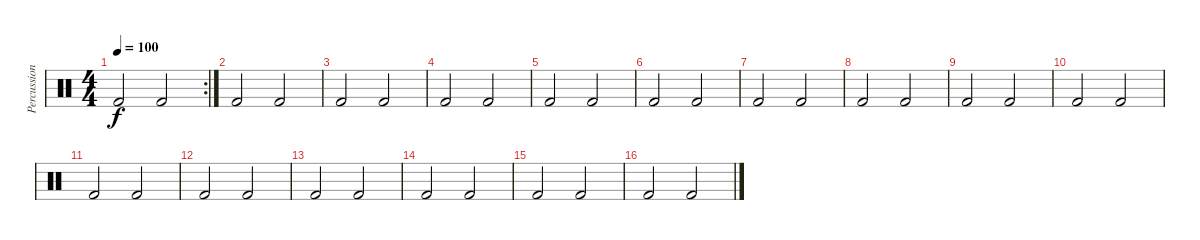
\track ("Percussion" "Percussion") {mute instrument percussion}
\staff {score}
\articulation defaults
\rc 2
\ts (4 4)
\tempo 100
\clef neutral
\ks c "Kick (hit) 2".2{dy f} "Kick (hit) 2".2
|
"Kick (hit) 2".2 "Kick (hit) 2".2 |
"Kick (hit) 2".2 "Kick (hit) 2".2 |
"Kick (hit) 2".2 "Kick (hit) 2".2 |
"Kick (hit) 2".2 "Kick (hit) 2".2 |
"Kick (hit) 2".2 "Kick (hit) 2".2 |
"Kick (hit) 2".2 "Kick (hit) 2".2 |
"Kick (hit) 2".2 "Kick (hit) 2".2 |
"Kick (hit) 2".2 "Kick (hit) 2".2 |
"Kick (hit) 2".2 "Kick (hit) 2".2 |
"Kick (hit) 2".2 "Kick (hit) 2".2 |
"Kick (hit) 2".2 "Kick (hit) 2".2 |
"Kick (hit) 2".2 "Kick (hit) 2".2 |
"Kick (hit) 2".2 "Kick (hit) 2".2 |
"Kick (hit) 2".2 "Kick (hit) 2".2 |
"Kick (hit) 2".2 "Kick (hit) 2".2
